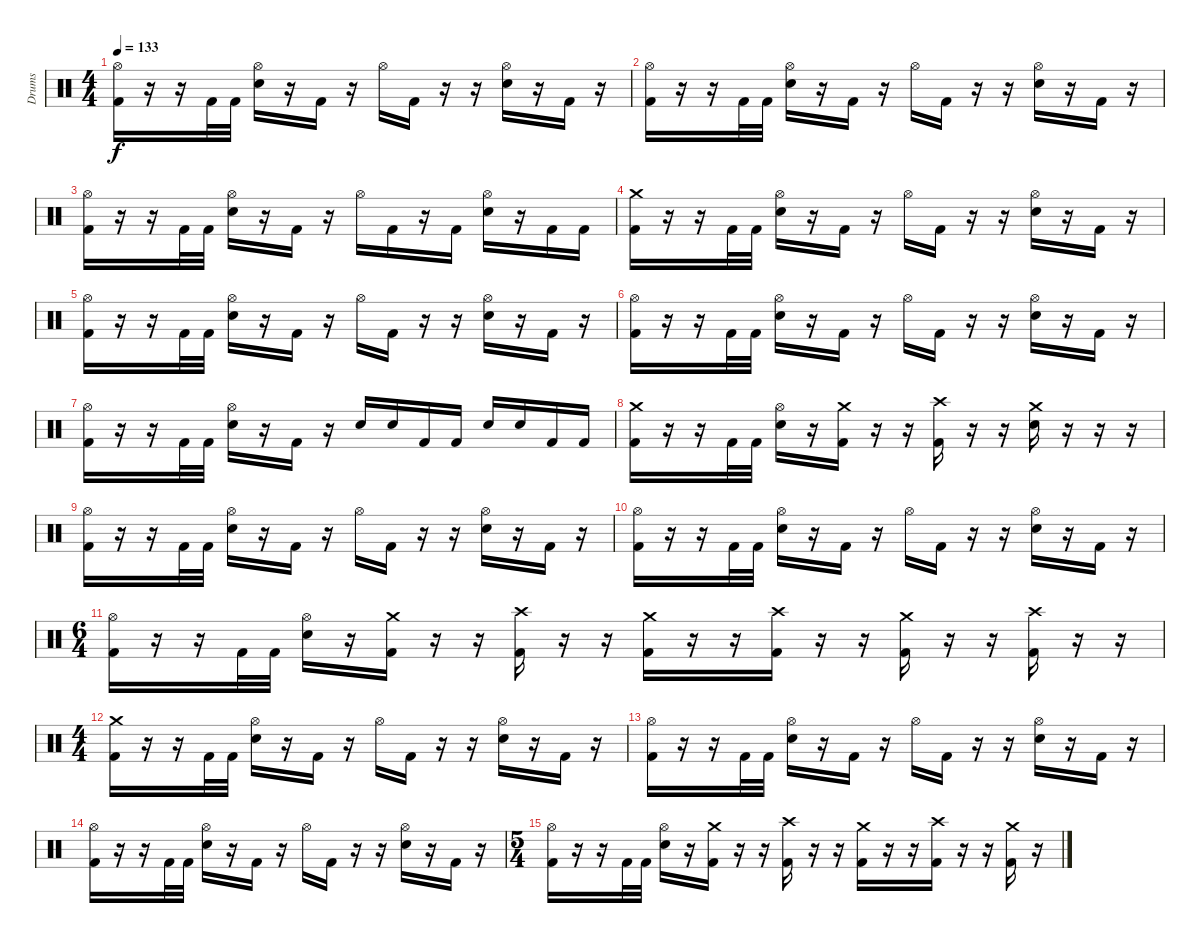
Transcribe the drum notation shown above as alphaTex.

\track ("Drums" "Drums") {instrument percussion}
\staff {score}
\articulation defaults
\ts (4 4)
\tempo 133
\clef neutral
\ks c
("Hi-Hat (open)" "Kick (hit) 2").16{dy f} r.16 r.16 "Kick (hit) 2".32 "Kick (hit) 2".32 ("Hi-Hat (open)" "Electric Snare (hit)").16 r.16 "Kick (hit) 2".16 r.16 "Hi-Hat (open)".16 "Kick (hit) 2".16 r.16 r.16 ("Hi-Hat (open)" "Electric Snare (hit)").16 r.16 "Kick (hit) 2".16 r.16 |
("Hi-Hat (open)" "Kick (hit) 2").16 r.16 r.16 "Kick (hit) 2".32 "Kick (hit) 2".32 ("Hi-Hat (open)" "Electric Snare (hit)").16 r.16 "Kick (hit) 2".16 r.16 "Hi-Hat (open)".16 "Kick (hit) 2".16 r.16 r.16 ("Hi-Hat (open)" "Electric Snare (hit)").16 r.16 "Kick (hit) 2".16 r.16 |
("Hi-Hat (open)" "Kick (hit) 2").16 r.16 r.16 "Kick (hit) 2".32 "Kick (hit) 2".32 ("Hi-Hat (open)" "Electric Snare (hit)").16 r.16 "Kick (hit) 2".16 r.16 "Hi-Hat (open)".16 "Kick (hit) 2".16 r.16 "Kick (hit) 2".16 ("Hi-Hat (open)" "Electric Snare (hit)").16 r.16 "Kick (hit) 2".16 "Kick (hit) 2".16 |
("Crash medium (hit)" "Kick (hit) 2").16 r.16 r.16 "Kick (hit) 2".32 "Kick (hit) 2".32 ("Hi-Hat (open)" "Electric Snare (hit)").16 r.16 "Kick (hit) 2".16 r.16 "Hi-Hat (open)".16 "Kick (hit) 2".16 r.16 r.16 ("Hi-Hat (open)" "Electric Snare (hit)").16 r.16 "Kick (hit) 2".16 r.16 |
("Hi-Hat (open)" "Kick (hit) 2").16 r.16 r.16 "Kick (hit) 2".32 "Kick (hit) 2".32 ("Hi-Hat (open)" "Electric Snare (hit)").16 r.16 "Kick (hit) 2".16 r.16 "Hi-Hat (open)".16 "Kick (hit) 2".16 r.16 r.16 ("Hi-Hat (open)" "Electric Snare (hit)").16 r.16 "Kick (hit) 2".16 r.16 |
("Hi-Hat (open)" "Kick (hit) 2").16 r.16 r.16 "Kick (hit) 2".32 "Kick (hit) 2".32 ("Hi-Hat (open)" "Electric Snare (hit)").16 r.16 "Kick (hit) 2".16 r.16 "Hi-Hat (open)".16 "Kick (hit) 2".16 r.16 r.16 ("Hi-Hat (open)" "Electric Snare (hit)").16 r.16 "Kick (hit) 2".16 r.16 |
("Hi-Hat (open)" "Kick (hit) 2").16 r.16 r.16 "Kick (hit) 2".32 "Kick (hit) 2".32 ("Hi-Hat (open)" "Electric Snare (hit)").16 r.16 "Kick (hit) 2".16 r.16 "Electric Snare (hit)".16 "Electric Snare (hit)".16 "Kick (hit) 2".16 "Kick (hit) 2".16 "Electric Snare (hit)".16 "Electric Snare (hit)".16 "Kick (hit) 2".16 "Kick (hit) 2".16 |
\section ("" "")
("Crash medium (hit)" "Kick (hit) 2").16 r.16 r.16 "Kick (hit) 2".32 "Kick (hit) 2".32 ("Hi-Hat (open)" "Electric Snare (hit)").16 r.16 ("Crash medium (hit)" "Kick (hit) 2").16 r.16 r.16 ("Crash high (hit)" "Kick (hit) 2").16 r.16 r.16 ("Crash medium (hit)" "Electric Snare (hit)").16 r.16 r.16 r.16 |
("Hi-Hat (open)" "Kick (hit) 2").16 r.16 r.16 "Kick (hit) 2".32 "Kick (hit) 2".32 ("Hi-Hat (open)" "Electric Snare (hit)").16 r.16 "Kick (hit) 2".16 r.16 "Hi-Hat (open)".16 "Kick (hit) 2".16 r.16 r.16 ("Hi-Hat (open)" "Electric Snare (hit)").16 r.16 "Kick (hit) 2".16 r.16 |
("Hi-Hat (open)" "Kick (hit) 2").16 r.16 r.16 "Kick (hit) 2".32 "Kick (hit) 2".32 ("Hi-Hat (open)" "Electric Snare (hit)").16 r.16 "Kick (hit) 2".16 r.16 "Hi-Hat (open)".16 "Kick (hit) 2".16 r.16 r.16 ("Hi-Hat (open)" "Electric Snare (hit)").16 r.16 "Kick (hit) 2".16 r.16 |
\ts (6 4)
("Hi-Hat (open)" "Kick (hit) 2").16 r.16 r.16 "Kick (hit) 2".32 "Kick (hit) 2".32 ("Hi-Hat (open)" "Electric Snare (hit)").16 r.16 ("Crash medium (hit)" "Kick (hit) 2").16 r.16 r.16 ("Crash high (hit)" "Kick (hit) 2").16 r.16 r.16 ("Crash medium (hit)" "Kick (hit) 2").16 r.16 r.16 ("Crash high (hit)" "Kick (hit) 2").16 r.16 r.16 ("Crash medium (hit)" "Kick (hit) 2").16 r.16 r.16 ("Crash high (hit)" "Kick (hit) 2").16 r.16 r.16 |
\ts (4 4)
("Crash medium (hit)" "Kick (hit) 2").16 r.16 r.16 "Kick (hit) 2".32 "Kick (hit) 2".32 ("Hi-Hat (open)" "Electric Snare (hit)").16 r.16 "Kick (hit) 2".16 r.16 "Hi-Hat (open)".16 "Kick (hit) 2".16 r.16 r.16 ("Hi-Hat (open)" "Electric Snare (hit)").16 r.16 "Kick (hit) 2".16 r.16 |
("Hi-Hat (open)" "Kick (hit) 2").16 r.16 r.16 "Kick (hit) 2".32 "Kick (hit) 2".32 ("Hi-Hat (open)" "Electric Snare (hit)").16 r.16 "Kick (hit) 2".16 r.16 "Hi-Hat (open)".16 "Kick (hit) 2".16 r.16 r.16 ("Hi-Hat (open)" "Electric Snare (hit)").16 r.16 "Kick (hit) 2".16 r.16 |
("Hi-Hat (open)" "Kick (hit) 2").16 r.16 r.16 "Kick (hit) 2".32 "Kick (hit) 2".32 ("Hi-Hat (open)" "Electric Snare (hit)").16 r.16 "Kick (hit) 2".16 r.16 "Hi-Hat (open)".16 "Kick (hit) 2".16 r.16 r.16 ("Hi-Hat (open)" "Electric Snare (hit)").16 r.16 "Kick (hit) 2".16 r.16 |
\ts (5 4)
("Hi-Hat (open)" "Kick (hit) 2").16 r.16 r.16 "Kick (hit) 2".32 "Kick (hit) 2".32 ("Hi-Hat (open)" "Electric Snare (hit)").16 r.16 ("Crash medium (hit)" "Kick (hit) 2").16 r.16 r.16 ("Crash high (hit)" "Kick (hit) 2").16 r.16 r.16 ("Crash medium (hit)" "Kick (hit) 2").16 r.16 r.16 ("Crash high (hit)" "Kick (hit) 2").16 r.16 r.16 ("Crash medium (hit)" "Kick (hit) 2").16 r.16
